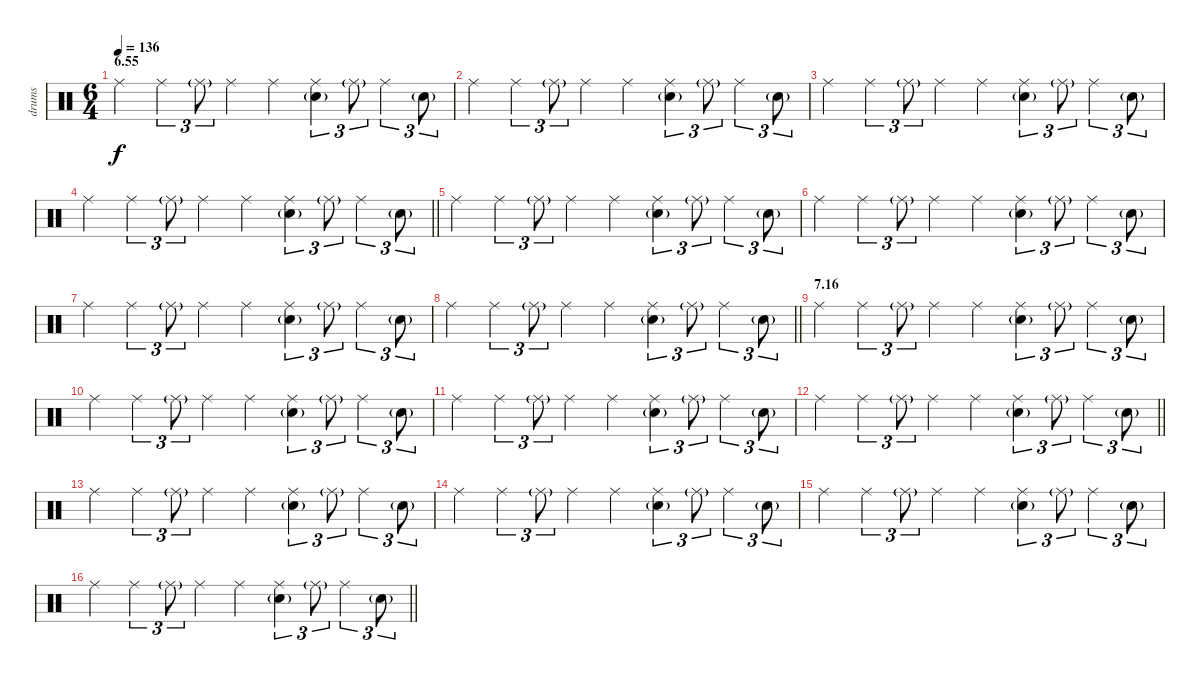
\track ("drums" "drums") {instrument percussion}
\staff {score}
\articulation defaults
\ts (6 4)
\section ("" "6.55")
\tempo 136
\clef neutral
\ks c "Ride (middle)".4{dy f} "Ride (middle)".4{tu (3 2)} "Ride (middle)"{g}.8{tu (3 2)} "Ride (middle)".4 "Ride (middle)".4
("Ride (middle)" "Electric Snare (hit)"{g}).4{tu (3 2)} "Ride (middle)"{g}.8{tu (3 2)} "Ride (middle)".4{tu (3 2)} "Electric Snare (hit)"{g}.8{tu (3 2)} |
"Ride (middle)".4 "Ride (middle)".4{tu (3 2)} "Ride (middle)"{g}.8{tu (3 2)} "Ride (middle)".4 "Ride (middle)".4 ("Ride (middle)" "Electric Snare (hit)"{g}).4{tu (3 2)} "Ride (middle)"{g}.8{tu (3 2)} "Ride (middle)".4{tu (3 2)} "Electric Snare (hit)"{g}.8{tu (3 2)} |
"Ride (middle)".4 "Ride (middle)".4{tu (3 2)} "Ride (middle)"{g}.8{tu (3 2)} "Ride (middle)".4 "Ride (middle)".4 ("Ride (middle)" "Electric Snare (hit)"{g}).4{tu (3 2)} "Ride (middle)"{g}.8{tu (3 2)} "Ride (middle)".4{tu (3 2)} "Electric Snare (hit)"{g}.8{tu (3 2)} |
\barLineRight lightlight "Ride (middle)".4 "Ride (middle)".4{tu (3 2)} "Ride (middle)"{g}.8{tu (3 2)} "Ride (middle)".4 "Ride (middle)".4
("Ride (middle)" "Electric Snare (hit)"{g}).4{tu (3 2)} "Ride (middle)"{g}.8{tu (3 2)} "Ride (middle)".4{tu (3 2)} "Electric Snare (hit)"{g}.8{tu (3 2)} |
"Ride (middle)".4 "Ride (middle)".4{tu (3 2)} "Ride (middle)"{g}.8{tu (3 2)} "Ride (middle)".4 "Ride (middle)".4 ("Ride (middle)" "Electric Snare (hit)"{g}).4{tu (3 2)} "Ride (middle)"{g}.8{tu (3 2)} "Ride (middle)".4{tu (3 2)} "Electric Snare (hit)"{g}.8{tu (3 2)} |
"Ride (middle)".4 "Ride (middle)".4{tu (3 2)} "Ride (middle)"{g}.8{tu (3 2)} "Ride (middle)".4 "Ride (middle)".4 ("Ride (middle)" "Electric Snare (hit)"{g}).4{tu (3 2)} "Ride (middle)"{g}.8{tu (3 2)} "Ride (middle)".4{tu (3 2)} "Electric Snare (hit)"{g}.8{tu (3 2)} |
"Ride (middle)".4 "Ride (middle)".4{tu (3 2)} "Ride (middle)"{g}.8{tu (3 2)} "Ride (middle)".4 "Ride (middle)".4 ("Ride (middle)" "Electric Snare (hit)"{g}).4{tu (3 2)} "Ride (middle)"{g}.8{tu (3 2)} "Ride (middle)".4{tu (3 2)} "Electric Snare (hit)"{g}.8{tu (3 2)} |
\barLineRight lightlight "Ride (middle)".4 "Ride (middle)".4{tu (3 2)} "Ride (middle)"{g}.8{tu (3 2)} "Ride (middle)".4 "Ride (middle)".4
("Ride (middle)" "Electric Snare (hit)"{g}).4{tu (3 2)} "Ride (middle)"{g}.8{tu (3 2)} "Ride (middle)".4{tu (3 2)} "Electric Snare (hit)"{g}.8{tu (3 2)} |
\section ("" "7.16")
"Ride (middle)".4 "Ride (middle)".4{tu (3 2)} "Ride (middle)"{g}.8{tu (3 2)} "Ride (middle)".4 "Ride (middle)".4 ("Ride (middle)" "Electric Snare (hit)"{g}).4{tu (3 2)} "Ride (middle)"{g}.8{tu (3 2)} "Ride (middle)".4{tu (3 2)} "Electric Snare (hit)"{g}.8{tu (3 2)} |
"Ride (middle)".4 "Ride (middle)".4{tu (3 2)} "Ride (middle)"{g}.8{tu (3 2)} "Ride (middle)".4 "Ride (middle)".4 ("Ride (middle)" "Electric Snare (hit)"{g}).4{tu (3 2)} "Ride (middle)"{g}.8{tu (3 2)} "Ride (middle)".4{tu (3 2)} "Electric Snare (hit)"{g}.8{tu (3 2)} |
"Ride (middle)".4 "Ride (middle)".4{tu (3 2)} "Ride (middle)"{g}.8{tu (3 2)} "Ride (middle)".4 "Ride (middle)".4 ("Ride (middle)" "Electric Snare (hit)"{g}).4{tu (3 2)} "Ride (middle)"{g}.8{tu (3 2)} "Ride (middle)".4{tu (3 2)} "Electric Snare (hit)"{g}.8{tu (3 2)} |
\barLineRight lightlight "Ride (middle)".4 "Ride (middle)".4{tu (3 2)} "Ride (middle)"{g}.8{tu (3 2)} "Ride (middle)".4 "Ride (middle)".4
("Ride (middle)" "Electric Snare (hit)"{g}).4{tu (3 2)} "Ride (middle)"{g}.8{tu (3 2)} "Ride (middle)".4{tu (3 2)} "Electric Snare (hit)"{g}.8{tu (3 2)} |
"Ride (middle)".4 "Ride (middle)".4{tu (3 2)} "Ride (middle)"{g}.8{tu (3 2)} "Ride (middle)".4 "Ride (middle)".4 ("Ride (middle)" "Electric Snare (hit)"{g}).4{tu (3 2)} "Ride (middle)"{g}.8{tu (3 2)} "Ride (middle)".4{tu (3 2)} "Electric Snare (hit)"{g}.8{tu (3 2)} |
"Ride (middle)".4 "Ride (middle)".4{tu (3 2)} "Ride (middle)"{g}.8{tu (3 2)} "Ride (middle)".4 "Ride (middle)".4 ("Ride (middle)" "Electric Snare (hit)"{g}).4{tu (3 2)} "Ride (middle)"{g}.8{tu (3 2)} "Ride (middle)".4{tu (3 2)} "Electric Snare (hit)"{g}.8{tu (3 2)} |
"Ride (middle)".4 "Ride (middle)".4{tu (3 2)} "Ride (middle)"{g}.8{tu (3 2)} "Ride (middle)".4 "Ride (middle)".4 ("Ride (middle)" "Electric Snare (hit)"{g}).4{tu (3 2)} "Ride (middle)"{g}.8{tu (3 2)} "Ride (middle)".4{tu (3 2)} "Electric Snare (hit)"{g}.8{tu (3 2)} |
\barLineRight lightlight "Ride (middle)".4 "Ride (middle)".4{tu (3 2)} "Ride (middle)"{g}.8{tu (3 2)} "Ride (middle)".4 "Ride (middle)".4
("Ride (middle)" "Electric Snare (hit)"{g}).4{tu (3 2)} "Ride (middle)"{g}.8{tu (3 2)} "Ride (middle)".4{tu (3 2)} "Electric Snare (hit)"{g}.8{tu (3 2)}
